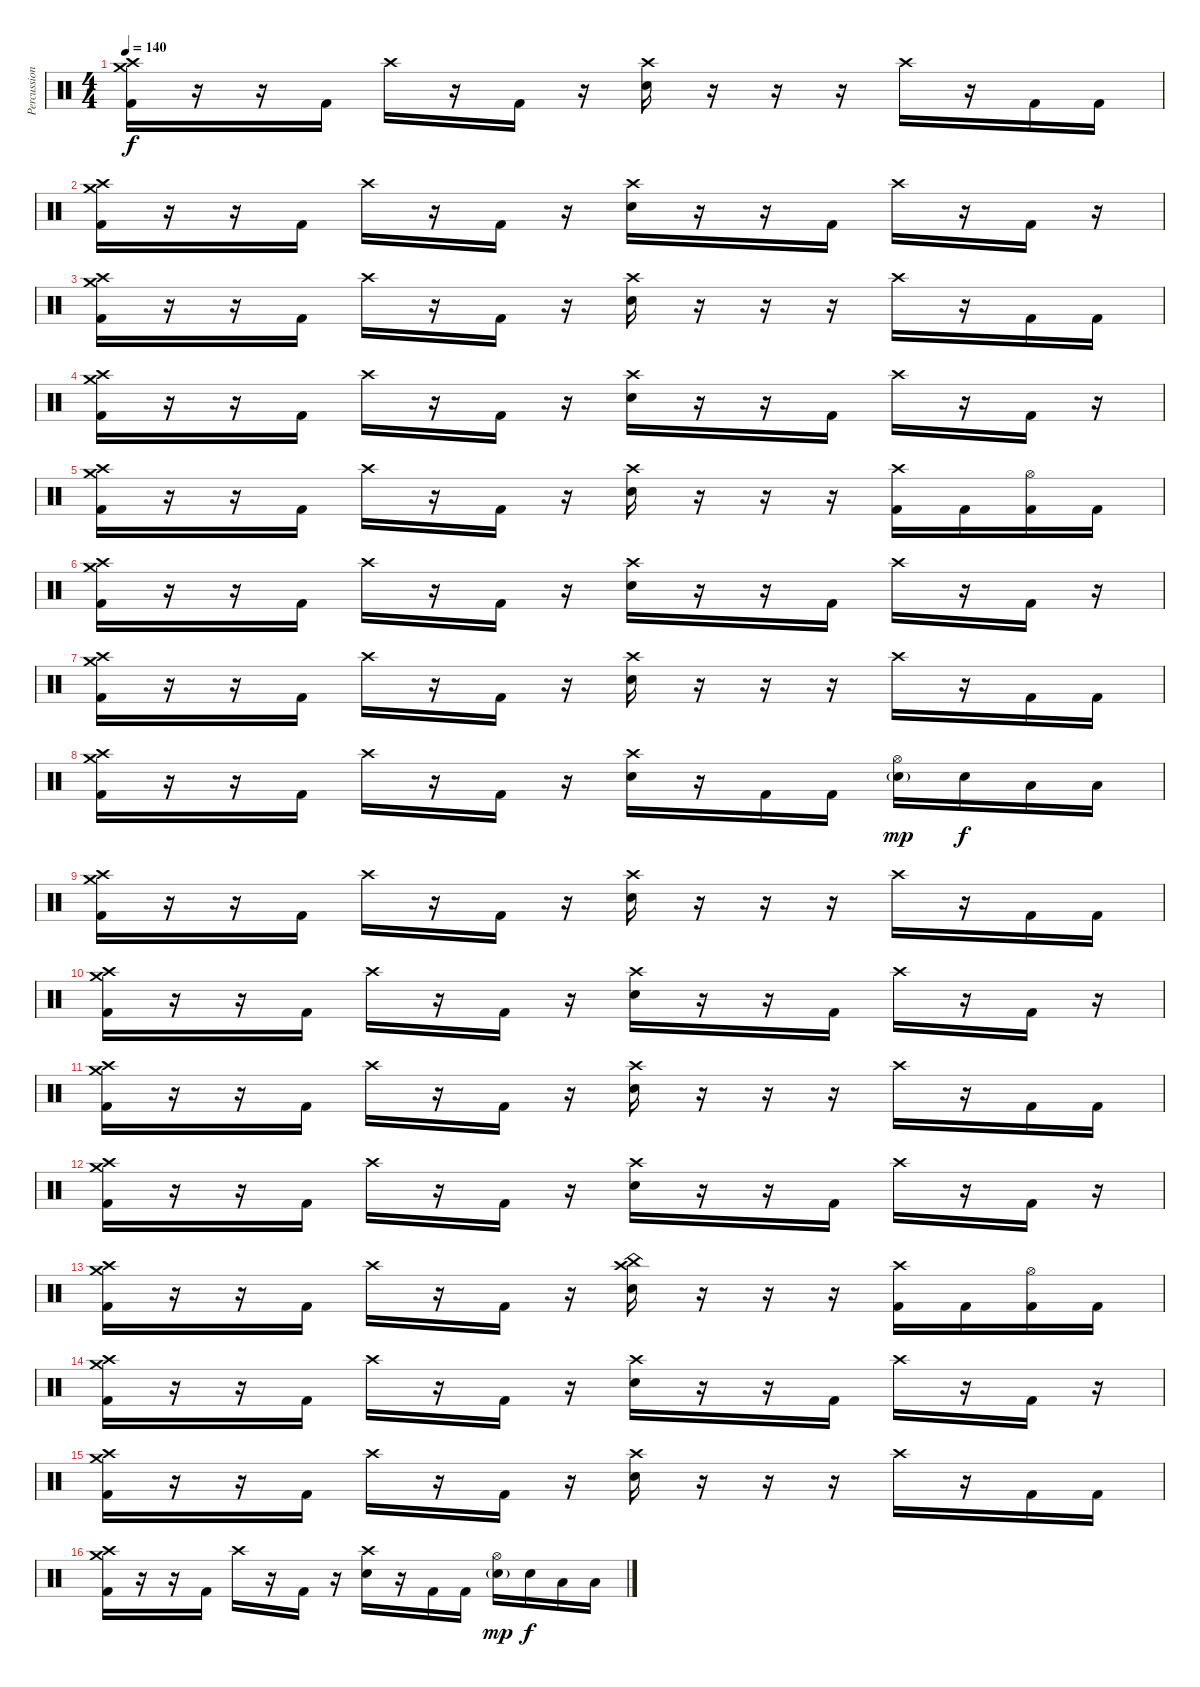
\track ("Percussion" "Percussion") {instrument percussion}
\staff {score}
\articulation defaults
\ts (4 4)
\tempo 140
\clef neutral
\ks c
("Crash high (hit)" "Crash medium (hit)" "Kick (hit) 2").16{dy f} r.16 r.16 "Kick (hit) 2".16 "Crash high (hit)".16 r.16 "Kick (hit) 2".16 r.16 ("Crash high (hit)" "Snare (hit) 2").16 r.16 r.16 r.16 "Crash high (hit)".16 r.16 "Kick (hit) 2".16 "Kick (hit) 2".16 |
("Crash high (hit)" "Crash medium (hit)" "Kick (hit) 2").16 r.16 r.16 "Kick (hit) 2".16 "Crash high (hit)".16 r.16 "Kick (hit) 2".16 r.16 ("Crash high (hit)" "Snare (hit) 2").16 r.16 r.16 "Kick (hit) 2".16 "Crash high (hit)".16 r.16 "Kick (hit) 2".16 r.16 |
("Crash high (hit)" "Crash medium (hit)" "Kick (hit) 2").16 r.16 r.16 "Kick (hit) 2".16 "Crash high (hit)".16 r.16 "Kick (hit) 2".16 r.16 ("Crash high (hit)" "Snare (hit) 2").16 r.16 r.16 r.16 "Crash high (hit)".16 r.16 "Kick (hit) 2".16 "Kick (hit) 2".16 |
("Crash high (hit)" "Crash medium (hit)" "Kick (hit) 2").16 r.16 r.16 "Kick (hit) 2".16 "Crash high (hit)".16 r.16 "Kick (hit) 2".16 r.16 ("Crash high (hit)" "Snare (hit) 2").16 r.16 r.16 "Kick (hit) 2".16 "Crash high (hit)".16 r.16 "Kick (hit) 2".16 r.16 |
("Crash high (hit)" "Crash medium (hit)" "Kick (hit) 2").16 r.16 r.16 "Kick (hit) 2".16 "Crash high (hit)".16 r.16 "Kick (hit) 2".16 r.16 ("Crash high (hit)" "Snare (hit) 2").16 r.16 r.16 r.16 ("Crash high (hit)" "Kick (hit) 2").16 "Kick (hit) 2".16 ("Hi-Hat (open)" "Kick (hit) 2").16 "Kick (hit) 2".16 |
("Crash high (hit)" "Crash medium (hit)" "Kick (hit) 2").16 r.16 r.16 "Kick (hit) 2".16 "Crash high (hit)".16 r.16 "Kick (hit) 2".16 r.16 ("Crash high (hit)" "Snare (hit) 2").16 r.16 r.16 "Kick (hit) 2".16 "Crash high (hit)".16 r.16 "Kick (hit) 2".16 r.16 |
("Crash high (hit)" "Crash medium (hit)" "Kick (hit) 2").16 r.16 r.16 "Kick (hit) 2".16 "Crash high (hit)".16 r.16 "Kick (hit) 2".16 r.16 ("Crash high (hit)" "Snare (hit) 2").16 r.16 r.16 r.16 "Crash high (hit)".16 r.16 "Kick (hit) 2".16 "Kick (hit) 2".16 |
("Crash high (hit)" "Crash medium (hit)" "Kick (hit) 2").16 r.16 r.16 "Kick (hit) 2".16 "Crash high (hit)".16 r.16 "Kick (hit) 2".16 r.16 ("Crash high (hit)" "Snare (hit) 2").16 r.16 "Kick (hit) 2".16 "Kick (hit) 2".16 ("Hi-Hat (open)" "Snare (hit) 2"{g}).16{dy mp} "Snare (hit) 2".16{dy f} "Low Tom (hit)".16 "Low Tom (hit)".16 |
("Crash high (hit)" "Crash medium (hit)" "Kick (hit) 2").16 r.16 r.16 "Kick (hit) 2".16 "Crash high (hit)".16 r.16 "Kick (hit) 2".16 r.16 ("Crash high (hit)" "Snare (hit) 2").16 r.16 r.16 r.16 "Crash high (hit)".16 r.16 "Kick (hit) 2".16 "Kick (hit) 2".16 |
("Crash high (hit)" "Crash medium (hit)" "Kick (hit) 2").16 r.16 r.16 "Kick (hit) 2".16 "Crash high (hit)".16 r.16 "Kick (hit) 2".16 r.16 ("Crash high (hit)" "Snare (hit) 2").16 r.16 r.16 "Kick (hit) 2".16 "Crash high (hit)".16 r.16 "Kick (hit) 2".16 r.16 |
("Crash high (hit)" "Crash medium (hit)" "Kick (hit) 2").16 r.16 r.16 "Kick (hit) 2".16 "Crash high (hit)".16 r.16 "Kick (hit) 2".16 r.16 ("Crash high (hit)" "Snare (hit) 2").16 r.16 r.16 r.16 "Crash high (hit)".16 r.16 "Kick (hit) 2".16 "Kick (hit) 2".16 |
("Crash high (hit)" "Crash medium (hit)" "Kick (hit) 2").16 r.16 r.16 "Kick (hit) 2".16 "Crash high (hit)".16 r.16 "Kick (hit) 2".16 r.16 ("Crash high (hit)" "Snare (hit) 2").16 r.16 r.16 "Kick (hit) 2".16 "Crash high (hit)".16 r.16 "Kick (hit) 2".16 r.16 |
("Crash high (hit)" "Crash medium (hit)" "Kick (hit) 2").16 r.16 r.16 "Kick (hit) 2".16 "Crash high (hit)".16 r.16 "Kick (hit) 2".16 r.16 ("Crash high (hit)" "China (hit)" "Snare (hit) 2").16 r.16 r.16 r.16 ("Crash high (hit)" "Kick (hit) 2").16 "Kick (hit) 2".16 ("Hi-Hat (open)" "Kick (hit) 2").16 "Kick (hit) 2".16 |
("Crash high (hit)" "Crash medium (hit)" "Kick (hit) 2").16 r.16 r.16 "Kick (hit) 2".16 "Crash high (hit)".16 r.16 "Kick (hit) 2".16 r.16 ("Crash high (hit)" "Snare (hit) 2").16 r.16 r.16 "Kick (hit) 2".16 "Crash high (hit)".16 r.16 "Kick (hit) 2".16 r.16 |
("Crash high (hit)" "Crash medium (hit)" "Kick (hit) 2").16 r.16 r.16 "Kick (hit) 2".16 "Crash high (hit)".16 r.16 "Kick (hit) 2".16 r.16 ("Crash high (hit)" "Snare (hit) 2").16 r.16 r.16 r.16 "Crash high (hit)".16 r.16 "Kick (hit) 2".16 "Kick (hit) 2".16 |
("Crash high (hit)" "Crash medium (hit)" "Kick (hit) 2").16 r.16 r.16 "Kick (hit) 2".16 "Crash high (hit)".16 r.16 "Kick (hit) 2".16 r.16 ("Crash high (hit)" "Snare (hit) 2").16 r.16 "Kick (hit) 2".16 "Kick (hit) 2".16 ("Hi-Hat (open)" "Snare (hit) 2"{g}).16{dy mp} "Snare (hit) 2".16{dy f} "Low Tom (hit)".16 "Low Tom (hit)".16
